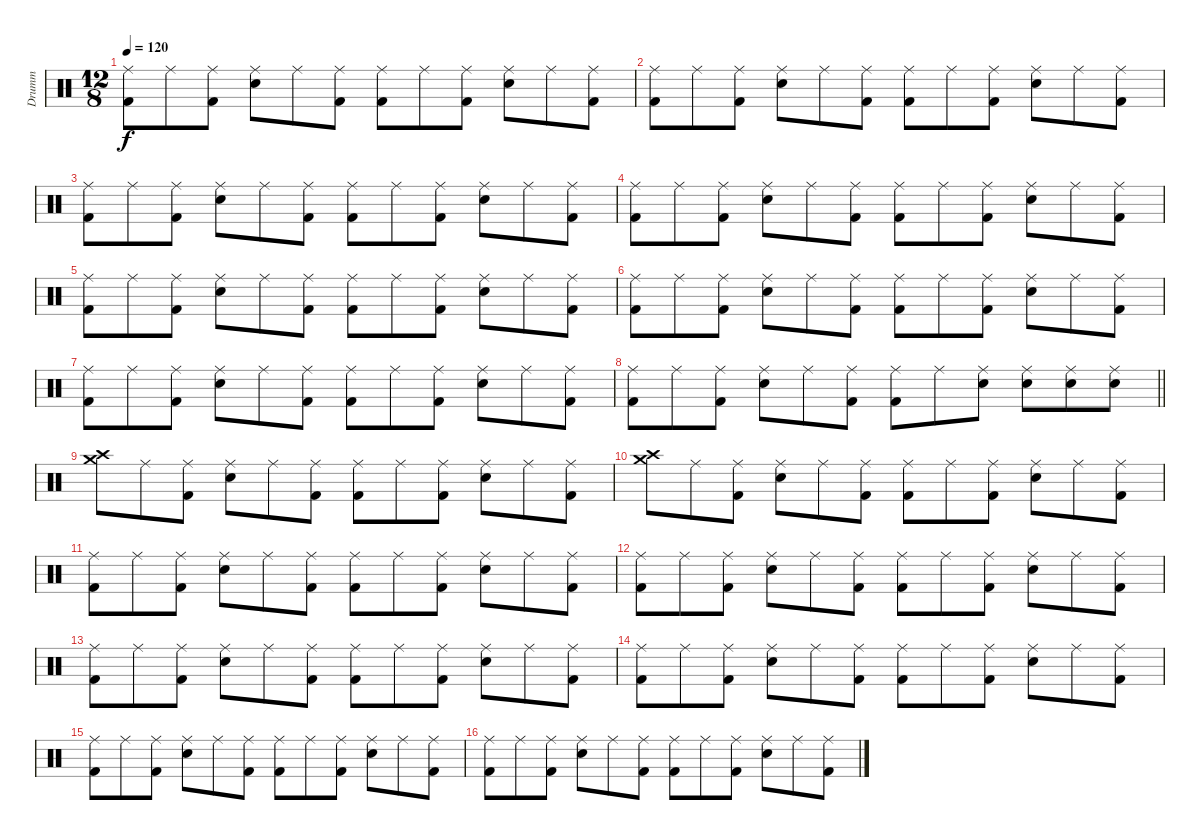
\track ("Drumm" "Drumm") {instrument percussion}
\staff {score}
\articulation defaults
\ts (12 8)
\tempo 120
\clef neutral
\ks c
("Kick (hit) 2" "Ride (middle)").8{dy f} "Ride (middle)".8 ("Kick (hit) 2" "Ride (middle)").8 ("Electric Snare (hit)" "Ride (middle)").8 "Ride (middle)".8 ("Kick (hit) 2" "Ride (middle)").8 ("Kick (hit) 2" "Ride (middle)").8 "Ride (middle)".8 ("Kick (hit) 2" "Ride (middle)").8 ("Electric Snare (hit)" "Ride (middle)").8 "Ride (middle)".8 ("Kick (hit) 2" "Ride (middle)").8 |
("Kick (hit) 2" "Ride (middle)").8 "Ride (middle)".8 ("Kick (hit) 2" "Ride (middle)").8 ("Electric Snare (hit)" "Ride (middle)").8 "Ride (middle)".8 ("Kick (hit) 2" "Ride (middle)").8 ("Kick (hit) 2" "Ride (middle)").8 "Ride (middle)".8 ("Kick (hit) 2" "Ride (middle)").8 ("Electric Snare (hit)" "Ride (middle)").8 "Ride (middle)".8 ("Kick (hit) 2" "Ride (middle)").8 |
("Kick (hit) 2" "Ride (middle)").8 "Ride (middle)".8 ("Kick (hit) 2" "Ride (middle)").8 ("Electric Snare (hit)" "Ride (middle)").8 "Ride (middle)".8 ("Kick (hit) 2" "Ride (middle)").8 ("Kick (hit) 2" "Ride (middle)").8 "Ride (middle)".8 ("Kick (hit) 2" "Ride (middle)").8 ("Electric Snare (hit)" "Ride (middle)").8 "Ride (middle)".8 ("Kick (hit) 2" "Ride (middle)").8 |
("Kick (hit) 2" "Ride (middle)").8 "Ride (middle)".8 ("Kick (hit) 2" "Ride (middle)").8 ("Electric Snare (hit)" "Ride (middle)").8 "Ride (middle)".8 ("Kick (hit) 2" "Ride (middle)").8 ("Kick (hit) 2" "Ride (middle)").8 "Ride (middle)".8 ("Kick (hit) 2" "Ride (middle)").8 ("Electric Snare (hit)" "Ride (middle)").8 "Ride (middle)".8 ("Kick (hit) 2" "Ride (middle)").8 |
("Kick (hit) 2" "Ride (middle)").8 "Ride (middle)".8 ("Kick (hit) 2" "Ride (middle)").8 ("Electric Snare (hit)" "Ride (middle)").8 "Ride (middle)".8 ("Kick (hit) 2" "Ride (middle)").8 ("Kick (hit) 2" "Ride (middle)").8 "Ride (middle)".8 ("Kick (hit) 2" "Ride (middle)").8 ("Electric Snare (hit)" "Ride (middle)").8 "Ride (middle)".8 ("Kick (hit) 2" "Ride (middle)").8 |
("Kick (hit) 2" "Ride (middle)").8 "Ride (middle)".8 ("Kick (hit) 2" "Ride (middle)").8 ("Electric Snare (hit)" "Ride (middle)").8 "Ride (middle)".8 ("Kick (hit) 2" "Ride (middle)").8 ("Kick (hit) 2" "Ride (middle)").8 "Ride (middle)".8 ("Kick (hit) 2" "Ride (middle)").8 ("Electric Snare (hit)" "Ride (middle)").8 "Ride (middle)".8 ("Kick (hit) 2" "Ride (middle)").8 |
("Kick (hit) 2" "Ride (middle)").8 "Ride (middle)".8 ("Kick (hit) 2" "Ride (middle)").8 ("Electric Snare (hit)" "Ride (middle)").8 "Ride (middle)".8 ("Kick (hit) 2" "Ride (middle)").8 ("Kick (hit) 2" "Ride (middle)").8 "Ride (middle)".8 ("Kick (hit) 2" "Ride (middle)").8 ("Electric Snare (hit)" "Ride (middle)").8 "Ride (middle)".8 ("Kick (hit) 2" "Ride (middle)").8 |
\barLineRight lightlight
("Kick (hit) 2" "Ride (middle)").8 "Ride (middle)".8 ("Kick (hit) 2" "Ride (middle)").8 ("Electric Snare (hit)" "Ride (middle)").8 "Ride (middle)".8 ("Kick (hit) 2" "Ride (middle)").8 ("Kick (hit) 2" "Ride (middle)").8 "Ride (middle)".8 ("Electric Snare (hit)" "Ride (middle)").8 ("Electric Snare (hit)" "Ride (middle)").8 ("Electric Snare (hit)" "Ride (middle)").8 ("Electric Snare (hit)" "Ride (middle)").8 |
("Crash high (hit)" "Crash medium (hit)").8 "Ride (middle)".8 ("Kick (hit) 2" "Ride (middle)").8 ("Electric Snare (hit)" "Ride (middle)").8 "Ride (middle)".8 ("Kick (hit) 2" "Ride (middle)").8 ("Kick (hit) 2" "Ride (middle)").8 "Ride (middle)".8 ("Kick (hit) 2" "Ride (middle)").8 ("Electric Snare (hit)" "Ride (middle)").8 "Ride (middle)".8 ("Kick (hit) 2" "Ride (middle)").8 |
("Crash high (hit)" "Crash medium (hit)").8 "Ride (middle)".8 ("Kick (hit) 2" "Ride (middle)").8 ("Electric Snare (hit)" "Ride (middle)").8 "Ride (middle)".8 ("Kick (hit) 2" "Ride (middle)").8 ("Kick (hit) 2" "Ride (middle)").8 "Ride (middle)".8 ("Kick (hit) 2" "Ride (middle)").8 ("Electric Snare (hit)" "Ride (middle)").8 "Ride (middle)".8 ("Kick (hit) 2" "Ride (middle)").8 |
("Kick (hit) 2" "Ride (middle)").8 "Ride (middle)".8 ("Kick (hit) 2" "Ride (middle)").8 ("Electric Snare (hit)" "Ride (middle)").8 "Ride (middle)".8 ("Kick (hit) 2" "Ride (middle)").8 ("Kick (hit) 2" "Ride (middle)").8 "Ride (middle)".8 ("Kick (hit) 2" "Ride (middle)").8 ("Electric Snare (hit)" "Ride (middle)").8 "Ride (middle)".8 ("Kick (hit) 2" "Ride (middle)").8 |
("Kick (hit) 2" "Ride (middle)").8 "Ride (middle)".8 ("Kick (hit) 2" "Ride (middle)").8 ("Electric Snare (hit)" "Ride (middle)").8 "Ride (middle)".8 ("Kick (hit) 2" "Ride (middle)").8 ("Kick (hit) 2" "Ride (middle)").8 "Ride (middle)".8 ("Kick (hit) 2" "Ride (middle)").8 ("Electric Snare (hit)" "Ride (middle)").8 "Ride (middle)".8 ("Kick (hit) 2" "Ride (middle)").8 |
("Kick (hit) 2" "Ride (middle)").8 "Ride (middle)".8 ("Kick (hit) 2" "Ride (middle)").8 ("Electric Snare (hit)" "Ride (middle)").8 "Ride (middle)".8 ("Kick (hit) 2" "Ride (middle)").8 ("Kick (hit) 2" "Ride (middle)").8 "Ride (middle)".8 ("Kick (hit) 2" "Ride (middle)").8 ("Electric Snare (hit)" "Ride (middle)").8 "Ride (middle)".8 ("Kick (hit) 2" "Ride (middle)").8 |
("Kick (hit) 2" "Ride (middle)").8 "Ride (middle)".8 ("Kick (hit) 2" "Ride (middle)").8 ("Electric Snare (hit)" "Ride (middle)").8 "Ride (middle)".8 ("Kick (hit) 2" "Ride (middle)").8 ("Kick (hit) 2" "Ride (middle)").8 "Ride (middle)".8 ("Kick (hit) 2" "Ride (middle)").8 ("Electric Snare (hit)" "Ride (middle)").8 "Ride (middle)".8 ("Kick (hit) 2" "Ride (middle)").8 |
("Kick (hit) 2" "Ride (middle)").8 "Ride (middle)".8 ("Kick (hit) 2" "Ride (middle)").8 ("Electric Snare (hit)" "Ride (middle)").8 "Ride (middle)".8 ("Kick (hit) 2" "Ride (middle)").8 ("Kick (hit) 2" "Ride (middle)").8 "Ride (middle)".8 ("Kick (hit) 2" "Ride (middle)").8 ("Electric Snare (hit)" "Ride (middle)").8 "Ride (middle)".8 ("Kick (hit) 2" "Ride (middle)").8 |
("Kick (hit) 2" "Ride (middle)").8 "Ride (middle)".8 ("Kick (hit) 2" "Ride (middle)").8 ("Electric Snare (hit)" "Ride (middle)").8 "Ride (middle)".8 ("Kick (hit) 2" "Ride (middle)").8 ("Kick (hit) 2" "Ride (middle)").8 "Ride (middle)".8 ("Kick (hit) 2" "Ride (middle)").8 ("Electric Snare (hit)" "Ride (middle)").8 "Ride (middle)".8 ("Kick (hit) 2" "Ride (middle)").8
